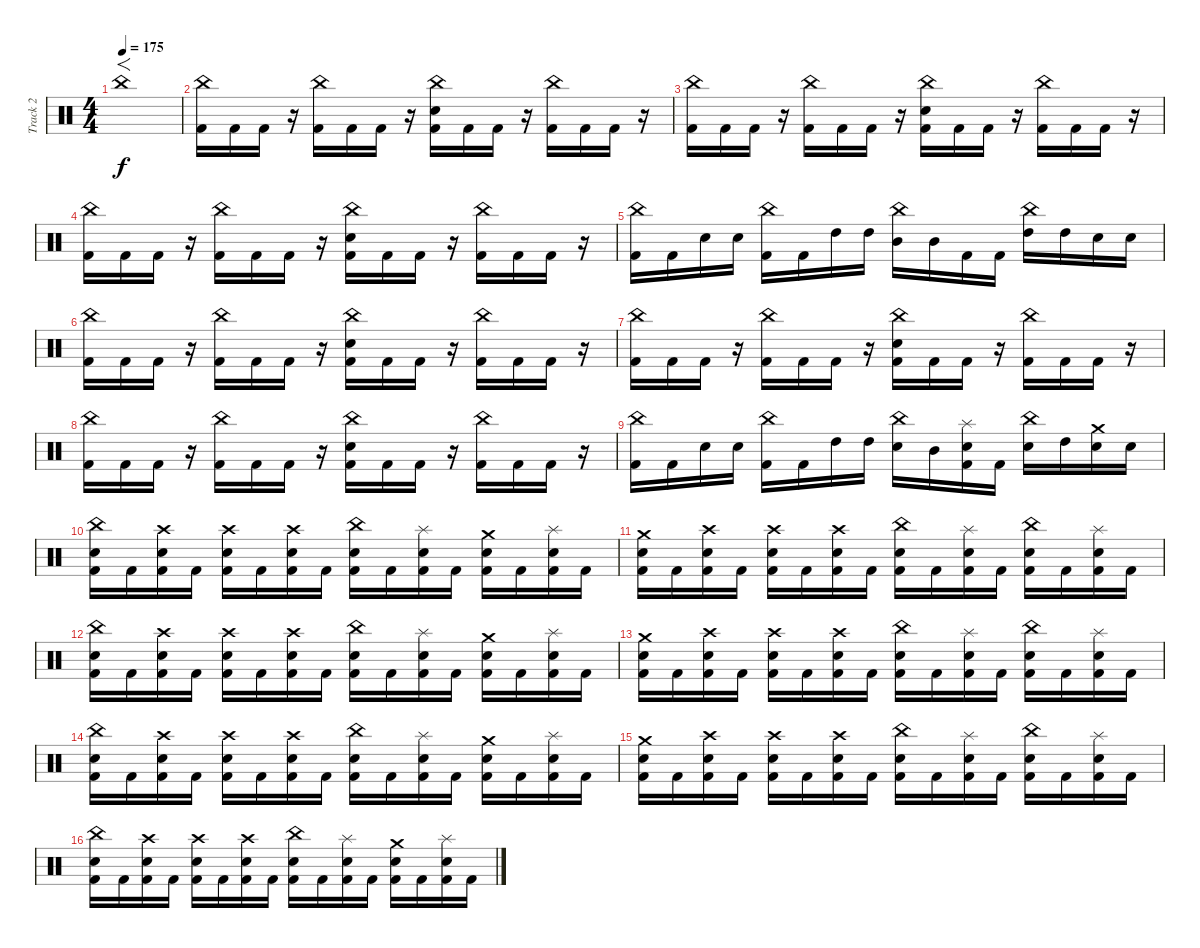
\track ("Track 2" "Track 2") {instrument percussion}
\staff {score}
\articulation defaults
\ts (4 4)
\tempo 175
\clef neutral
\ks c "China (hit)".1{f dy f}
|
("China (hit)" "Kick (hit) 2").16 "Kick (hit) 2".16 "Kick (hit) 2".16 r.16 ("China (hit)" "Kick (hit) 2").16 "Kick (hit) 2".16 "Kick (hit) 2".16 r.16 ("China (hit)" "Electric Snare (hit)" "Kick (hit) 2").16 "Kick (hit) 2".16 "Kick (hit) 2".16 r.16 ("China (hit)" "Kick (hit) 2").16 "Kick (hit) 2".16 "Kick (hit) 2".16 r.16 |
("China (hit)" "Kick (hit) 2").16 "Kick (hit) 2".16 "Kick (hit) 2".16 r.16 ("China (hit)" "Kick (hit) 2").16 "Kick (hit) 2".16 "Kick (hit) 2".16 r.16 ("China (hit)" "Electric Snare (hit)" "Kick (hit) 2").16 "Kick (hit) 2".16 "Kick (hit) 2".16 r.16 ("China (hit)" "Kick (hit) 2").16 "Kick (hit) 2".16 "Kick (hit) 2".16 r.16 |
("China (hit)" "Kick (hit) 2").16 "Kick (hit) 2".16 "Kick (hit) 2".16 r.16 ("China (hit)" "Kick (hit) 2").16 "Kick (hit) 2".16 "Kick (hit) 2".16 r.16 ("China (hit)" "Electric Snare (hit)" "Kick (hit) 2").16 "Kick (hit) 2".16 "Kick (hit) 2".16 r.16 ("China (hit)" "Kick (hit) 2").16 "Kick (hit) 2".16 "Kick (hit) 2".16 r.16 |
("China (hit)" "Kick (hit) 2").16 "Kick (hit) 2".16 "Electric Snare (hit)".16 "Electric Snare (hit)".16 ("China (hit)" "Kick (hit) 2").16 "Kick (hit) 2".16 "High Tom (hit)".16 "High Tom (hit)".16 ("China (hit)" "Mid Tom (hit)").16 "Mid Tom (hit)".16 "Kick (hit) 2".16 "Kick (hit) 2".16 ("China (hit)" "High Tom (hit)").16 "High Tom (hit)".16 "Electric Snare (hit)".16 "Electric Snare (hit)".16 |
("China (hit)" "Kick (hit) 2").16 "Kick (hit) 2".16 "Kick (hit) 2".16 r.16 ("China (hit)" "Kick (hit) 2").16 "Kick (hit) 2".16 "Kick (hit) 2".16 r.16 ("China (hit)" "Electric Snare (hit)" "Kick (hit) 2").16 "Kick (hit) 2".16 "Kick (hit) 2".16 r.16 ("China (hit)" "Kick (hit) 2").16 "Kick (hit) 2".16 "Kick (hit) 2".16 r.16 |
("China (hit)" "Kick (hit) 2").16 "Kick (hit) 2".16 "Kick (hit) 2".16 r.16 ("China (hit)" "Kick (hit) 2").16 "Kick (hit) 2".16 "Kick (hit) 2".16 r.16 ("China (hit)" "Electric Snare (hit)" "Kick (hit) 2").16 "Kick (hit) 2".16 "Kick (hit) 2".16 r.16 ("China (hit)" "Kick (hit) 2").16 "Kick (hit) 2".16 "Kick (hit) 2".16 r.16 |
("China (hit)" "Kick (hit) 2").16 "Kick (hit) 2".16 "Kick (hit) 2".16 r.16 ("China (hit)" "Kick (hit) 2").16 "Kick (hit) 2".16 "Kick (hit) 2".16 r.16 ("China (hit)" "Electric Snare (hit)" "Kick (hit) 2").16 "Kick (hit) 2".16 "Kick (hit) 2".16 r.16 ("China (hit)" "Kick (hit) 2").16 "Kick (hit) 2".16 "Kick (hit) 2".16 r.16 |
("China (hit)" "Kick (hit) 2").16 "Kick (hit) 2".16 "Electric Snare (hit)".16 "Electric Snare (hit)".16 ("China (hit)" "Kick (hit) 2").16 "Kick (hit) 2".16 "High Tom (hit)".16 "High Tom (hit)".16 ("China (hit)" "Electric Snare (hit)").16 "Mid Tom (hit)".16 ("Splash (hit)" "Electric Snare (hit)" "Kick (hit) 2").16 "Kick (hit) 2".16 ("China (hit)" "Electric Snare (hit)").16 "High Tom (hit)".16 ("Crash medium (hit)" "Electric Snare (hit)").16 "Electric Snare (hit)".16 |
("China (hit)" "Electric Snare (hit)" "Kick (hit) 2").16 "Kick (hit) 2".16 ("Crash high (hit)" "Electric Snare (hit)" "Kick (hit) 2").16 "Kick (hit) 2".16 ("Crash high (hit)" "Electric Snare (hit)" "Kick (hit) 2").16 "Kick (hit) 2".16 ("Crash high (hit)" "Electric Snare (hit)" "Kick (hit) 2").16 "Kick (hit) 2".16 ("China (hit)" "Electric Snare (hit)" "Kick (hit) 2").16 "Kick (hit) 2".16 ("Splash (hit)" "Electric Snare (hit)" "Kick (hit) 2").16 "Kick (hit) 2".16 ("Crash medium (hit)" "Electric Snare (hit)" "Kick (hit) 2").16 "Kick (hit) 2".16 ("Splash (hit)" "Electric Snare (hit)" "Kick (hit) 2").16 "Kick (hit) 2".16 |
("Crash medium (hit)" "Electric Snare (hit)" "Kick (hit) 2").16 "Kick (hit) 2".16 ("Crash high (hit)" "Electric Snare (hit)" "Kick (hit) 2").16 "Kick (hit) 2".16 ("Crash high (hit)" "Electric Snare (hit)" "Kick (hit) 2").16 "Kick (hit) 2".16 ("Crash high (hit)" "Electric Snare (hit)" "Kick (hit) 2").16 "Kick (hit) 2".16 ("China (hit)" "Electric Snare (hit)" "Kick (hit) 2").16 "Kick (hit) 2".16 ("Splash (hit)" "Electric Snare (hit)" "Kick (hit) 2").16 "Kick (hit) 2".16 ("China (hit)" "Electric Snare (hit)" "Kick (hit) 2").16 "Kick (hit) 2".16 ("Splash (hit)" "Electric Snare (hit)" "Kick (hit) 2").16 "Kick (hit) 2".16 |
("China (hit)" "Electric Snare (hit)" "Kick (hit) 2").16 "Kick (hit) 2".16 ("Crash high (hit)" "Electric Snare (hit)" "Kick (hit) 2").16 "Kick (hit) 2".16 ("Crash high (hit)" "Electric Snare (hit)" "Kick (hit) 2").16 "Kick (hit) 2".16 ("Crash high (hit)" "Electric Snare (hit)" "Kick (hit) 2").16 "Kick (hit) 2".16 ("China (hit)" "Electric Snare (hit)" "Kick (hit) 2").16 "Kick (hit) 2".16 ("Splash (hit)" "Electric Snare (hit)" "Kick (hit) 2").16 "Kick (hit) 2".16 ("Crash medium (hit)" "Electric Snare (hit)" "Kick (hit) 2").16 "Kick (hit) 2".16 ("Splash (hit)" "Electric Snare (hit)" "Kick (hit) 2").16 "Kick (hit) 2".16 |
("Crash medium (hit)" "Electric Snare (hit)" "Kick (hit) 2").16 "Kick (hit) 2".16 ("Crash high (hit)" "Electric Snare (hit)" "Kick (hit) 2").16 "Kick (hit) 2".16 ("Crash high (hit)" "Electric Snare (hit)" "Kick (hit) 2").16 "Kick (hit) 2".16 ("Crash high (hit)" "Electric Snare (hit)" "Kick (hit) 2").16 "Kick (hit) 2".16 ("China (hit)" "Electric Snare (hit)" "Kick (hit) 2").16 "Kick (hit) 2".16 ("Splash (hit)" "Electric Snare (hit)" "Kick (hit) 2").16 "Kick (hit) 2".16 ("China (hit)" "Electric Snare (hit)" "Kick (hit) 2").16 "Kick (hit) 2".16 ("Splash (hit)" "Electric Snare (hit)" "Kick (hit) 2").16 "Kick (hit) 2".16 |
("China (hit)" "Electric Snare (hit)" "Kick (hit) 2").16 "Kick (hit) 2".16 ("Crash high (hit)" "Electric Snare (hit)" "Kick (hit) 2").16 "Kick (hit) 2".16 ("Crash high (hit)" "Electric Snare (hit)" "Kick (hit) 2").16 "Kick (hit) 2".16 ("Crash high (hit)" "Electric Snare (hit)" "Kick (hit) 2").16 "Kick (hit) 2".16 ("China (hit)" "Electric Snare (hit)" "Kick (hit) 2").16 "Kick (hit) 2".16 ("Splash (hit)" "Electric Snare (hit)" "Kick (hit) 2").16 "Kick (hit) 2".16 ("Crash medium (hit)" "Electric Snare (hit)" "Kick (hit) 2").16 "Kick (hit) 2".16 ("Splash (hit)" "Electric Snare (hit)" "Kick (hit) 2").16 "Kick (hit) 2".16 |
("Crash medium (hit)" "Electric Snare (hit)" "Kick (hit) 2").16 "Kick (hit) 2".16 ("Crash high (hit)" "Electric Snare (hit)" "Kick (hit) 2").16 "Kick (hit) 2".16 ("Crash high (hit)" "Electric Snare (hit)" "Kick (hit) 2").16 "Kick (hit) 2".16 ("Crash high (hit)" "Electric Snare (hit)" "Kick (hit) 2").16 "Kick (hit) 2".16 ("China (hit)" "Electric Snare (hit)" "Kick (hit) 2").16 "Kick (hit) 2".16 ("Splash (hit)" "Electric Snare (hit)" "Kick (hit) 2").16 "Kick (hit) 2".16 ("China (hit)" "Electric Snare (hit)" "Kick (hit) 2").16 "Kick (hit) 2".16 ("Splash (hit)" "Electric Snare (hit)" "Kick (hit) 2").16 "Kick (hit) 2".16 |
("China (hit)" "Electric Snare (hit)" "Kick (hit) 2").16 "Kick (hit) 2".16 ("Crash high (hit)" "Electric Snare (hit)" "Kick (hit) 2").16 "Kick (hit) 2".16 ("Crash high (hit)" "Electric Snare (hit)" "Kick (hit) 2").16 "Kick (hit) 2".16 ("Crash high (hit)" "Electric Snare (hit)" "Kick (hit) 2").16 "Kick (hit) 2".16 ("China (hit)" "Electric Snare (hit)" "Kick (hit) 2").16 "Kick (hit) 2".16 ("Splash (hit)" "Electric Snare (hit)" "Kick (hit) 2").16 "Kick (hit) 2".16 ("Crash medium (hit)" "Electric Snare (hit)" "Kick (hit) 2").16 "Kick (hit) 2".16 ("Splash (hit)" "Electric Snare (hit)" "Kick (hit) 2").16 "Kick (hit) 2".16
